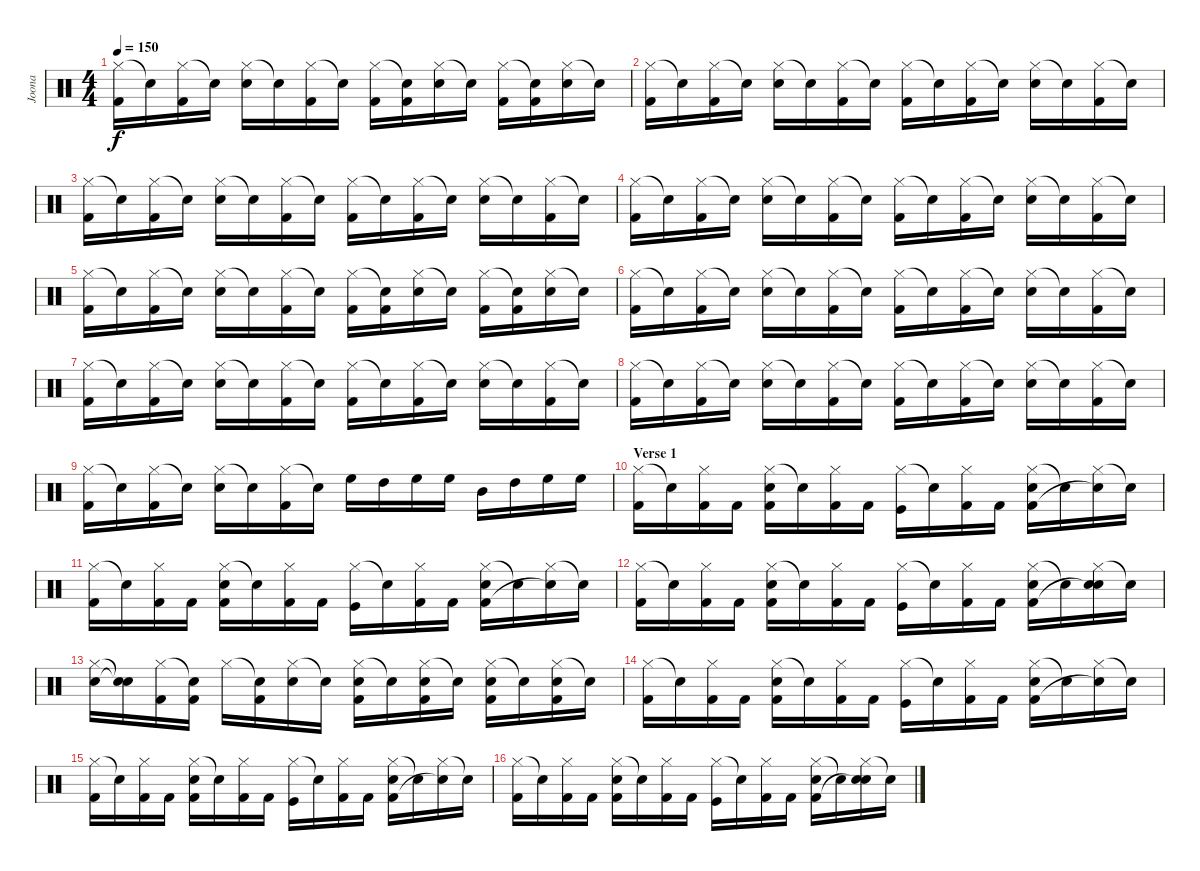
\track ("Joona" "Joona") {instrument percussion}
\staff {score}
\articulation defaults
\ts (4 4)
\tempo 150
\clef neutral
\ks c
("Hi-Hat (closed)" "Kick (hit) 2").16{dy f} "Snare (hit)"{t}.16 ("Hi-Hat (closed)" "Kick (hit) 2").16 "Snare (hit)"{t}.16 ("Hi-Hat (closed)" "Snare (hit) 2").16 "Snare (hit)"{t}.16 ("Hi-Hat (closed)" "Kick (hit) 2").16 "Snare (hit)"{t}.16 ("Hi-Hat (closed)" "Kick (hit) 2").16 ("Snare (hit)"{t} "Kick (hit) 2").16 ("Hi-Hat (closed)" "Snare (hit) 2").16 "Snare (hit)"{t}.16 ("Hi-Hat (closed)" "Kick (hit) 2").16 ("Snare (hit)"{t} "Kick (hit) 2").16 ("Hi-Hat (closed)" "Snare (hit) 2").16 "Snare (hit)"{t}.16 |
("Hi-Hat (closed)" "Kick (hit) 2").16 "Snare (hit)"{t}.16 ("Hi-Hat (closed)" "Kick (hit) 2").16 "Snare (hit)"{t}.16 ("Hi-Hat (closed)" "Snare (hit) 2").16 "Snare (hit)"{t}.16 ("Hi-Hat (closed)" "Kick (hit) 2").16 "Snare (hit)"{t}.16 ("Hi-Hat (closed)" "Kick (hit) 2").16 "Snare (hit)"{t}.16 ("Hi-Hat (closed)" "Kick (hit) 2").16 "Snare (hit)"{t}.16 ("Hi-Hat (closed)" "Snare (hit) 2").16 "Snare (hit)"{t}.16 ("Hi-Hat (closed)" "Kick (hit) 2").16 "Snare (hit)"{t}.16 |
("Hi-Hat (closed)" "Kick (hit) 2").16 "Snare (hit)"{t}.16 ("Hi-Hat (closed)" "Kick (hit) 2").16 "Snare (hit)"{t}.16 ("Hi-Hat (closed)" "Snare (hit) 2").16 "Snare (hit)"{t}.16 ("Hi-Hat (closed)" "Kick (hit) 2").16 "Snare (hit)"{t}.16 ("Hi-Hat (closed)" "Kick (hit) 2").16 "Snare (hit)"{t}.16 ("Hi-Hat (closed)" "Kick (hit) 2").16 "Snare (hit)"{t}.16 ("Hi-Hat (closed)" "Snare (hit) 2").16 "Snare (hit)"{t}.16 ("Hi-Hat (closed)" "Kick (hit) 2").16 "Snare (hit)"{t}.16 |
("Hi-Hat (closed)" "Kick (hit) 2").16 "Snare (hit)"{t}.16 ("Hi-Hat (closed)" "Kick (hit) 2").16 "Snare (hit)"{t}.16 ("Hi-Hat (closed)" "Snare (hit) 2").16 "Snare (hit)"{t}.16 ("Hi-Hat (closed)" "Kick (hit) 2").16 "Snare (hit)"{t}.16 ("Hi-Hat (closed)" "Kick (hit) 2").16 "Snare (hit)"{t}.16 ("Hi-Hat (closed)" "Kick (hit) 2").16 "Snare (hit)"{t}.16 ("Hi-Hat (closed)" "Snare (hit) 2").16 "Snare (hit)"{t}.16 ("Hi-Hat (closed)" "Kick (hit) 2").16 "Snare (hit)"{t}.16 |
("Hi-Hat (closed)" "Kick (hit) 2").16 "Snare (hit)"{t}.16 ("Hi-Hat (closed)" "Kick (hit) 2").16 "Snare (hit)"{t}.16 ("Hi-Hat (closed)" "Snare (hit) 2").16 "Snare (hit)"{t}.16 ("Hi-Hat (closed)" "Kick (hit) 2").16 "Snare (hit)"{t}.16 ("Hi-Hat (closed)" "Kick (hit) 2").16 ("Snare (hit)"{t} "Kick (hit) 2").16 ("Hi-Hat (closed)" "Snare (hit) 2").16 "Snare (hit)"{t}.16 ("Hi-Hat (closed)" "Kick (hit) 2").16 ("Snare (hit)"{t} "Kick (hit) 2").16 ("Hi-Hat (closed)" "Snare (hit) 2").16 "Snare (hit)"{t}.16 |
("Hi-Hat (closed)" "Kick (hit) 2").16 "Snare (hit)"{t}.16 ("Hi-Hat (closed)" "Kick (hit) 2").16 "Snare (hit)"{t}.16 ("Hi-Hat (closed)" "Snare (hit) 2").16 "Snare (hit)"{t}.16 ("Hi-Hat (closed)" "Kick (hit) 2").16 "Snare (hit)"{t}.16 ("Hi-Hat (closed)" "Kick (hit) 2").16 "Snare (hit)"{t}.16 ("Hi-Hat (closed)" "Kick (hit) 2").16 "Snare (hit)"{t}.16 ("Hi-Hat (closed)" "Snare (hit) 2").16 "Snare (hit)"{t}.16 ("Hi-Hat (closed)" "Kick (hit) 2").16 "Snare (hit)"{t}.16 |
("Hi-Hat (closed)" "Kick (hit) 2").16 "Snare (hit)"{t}.16 ("Hi-Hat (closed)" "Kick (hit) 2").16 "Snare (hit)"{t}.16 ("Hi-Hat (closed)" "Snare (hit) 2").16 "Snare (hit)"{t}.16 ("Hi-Hat (closed)" "Kick (hit) 2").16 "Snare (hit)"{t}.16 ("Hi-Hat (closed)" "Kick (hit) 2").16 "Snare (hit)"{t}.16 ("Hi-Hat (closed)" "Kick (hit) 2").16 "Snare (hit)"{t}.16 ("Hi-Hat (closed)" "Snare (hit) 2").16 "Snare (hit)"{t}.16 ("Hi-Hat (closed)" "Kick (hit) 2").16 "Snare (hit)"{t}.16 |
("Hi-Hat (closed)" "Kick (hit) 2").16 "Snare (hit)"{t}.16 ("Hi-Hat (closed)" "Kick (hit) 2").16 "Snare (hit)"{t}.16 ("Hi-Hat (closed)" "Snare (hit) 2").16 "Snare (hit)"{t}.16 ("Hi-Hat (closed)" "Kick (hit) 2").16 "Snare (hit)"{t}.16 ("Hi-Hat (closed)" "Kick (hit) 2").16 "Snare (hit)"{t}.16 ("Hi-Hat (closed)" "Kick (hit) 2").16 "Snare (hit)"{t}.16 ("Hi-Hat (closed)" "Snare (hit) 2").16 "Snare (hit)"{t}.16 ("Hi-Hat (closed)" "Kick (hit) 2").16 "Snare (hit)"{t}.16 |
("Hi-Hat (closed)" "Kick (hit) 2").16 "Snare (hit)"{t}.16 ("Hi-Hat (closed)" "Kick (hit) 2").16 "Snare (hit)"{t}.16 ("Hi-Hat (closed)" "Snare (hit) 2").16 "Snare (hit)"{t}.16 ("Hi-Hat (closed)" "Kick (hit) 2").16 "Snare (hit)"{t}.16 "High Floor Tom (hit)".16 "High Tom (hit)".16 "High Floor Tom (hit)".16 "High Floor Tom (hit)".16 "Mid Tom (hit)".16 "High Tom (hit)".16 "High Floor Tom (hit)".16 "High Floor Tom (hit)".16 |
\section ("" "Verse 1")
("Hi-Hat (closed)" "Kick (hit) 2").16 "Snare (hit)"{t}.16 ("Hi-Hat (closed)" "Kick (hit) 2").16 "Kick (hit) 2".16 ("Hi-Hat (closed)" "Kick (hit) 2" "Snare (hit) 2").16 "Snare (hit)"{t}.16 ("Hi-Hat (closed)" "Kick (hit) 2").16 "Kick (hit) 2".16 ("Hi-Hat (closed)" "Kick (hit)").16 "Snare (hit)"{t}.16 ("Hi-Hat (closed)" "Kick (hit) 2").16 "Kick (hit) 2".16 ("Hi-Hat (closed)" "Kick (hit) 2" "Snare (hit) 2").16 "Snare (hit)"{t}.16 ("Hi-Hat (closed)" "Snare (hit)"{t}).16 "Snare (hit)"{t}.16 |
("Hi-Hat (closed)" "Kick (hit) 2").16 "Snare (hit)"{t}.16 ("Hi-Hat (closed)" "Kick (hit) 2").16 "Kick (hit) 2".16 ("Hi-Hat (closed)" "Kick (hit) 2" "Snare (hit) 2").16 "Snare (hit)"{t}.16 ("Hi-Hat (closed)" "Kick (hit) 2").16 "Kick (hit) 2".16 ("Hi-Hat (closed)" "Kick (hit)").16 "Snare (hit)"{t}.16 ("Hi-Hat (closed)" "Kick (hit) 2").16 "Kick (hit) 2".16 ("Hi-Hat (closed)" "Kick (hit) 2" "Snare (hit) 2").16 "Snare (hit)"{t}.16 ("Hi-Hat (closed)" "Snare (hit)"{t}).16 "Snare (hit)"{t}.16 |
("Hi-Hat (closed)" "Kick (hit) 2").16 "Snare (hit)"{t}.16 ("Hi-Hat (closed)" "Kick (hit) 2").16 "Kick (hit) 2".16 ("Hi-Hat (closed)" "Kick (hit) 2" "Snare (hit) 2").16 "Snare (hit)"{t}.16 ("Hi-Hat (closed)" "Kick (hit) 2").16 "Kick (hit) 2".16 ("Hi-Hat (closed)" "Kick (hit)").16 "Snare (hit)"{t}.16 ("Hi-Hat (closed)" "Kick (hit) 2").16 "Kick (hit) 2".16 ("Hi-Hat (closed)" "Kick (hit) 2" "Snare (hit) 2").16 "Snare (hit)"{t}.16 ("Hi-Hat (closed)" "Snare (hit)"{t} "Snare (hit) 2").16 "Snare (hit)"{t}.16 |
("Hi-Hat (closed)" "Snare (hit) 2").16 ("Snare (hit)"{t} "Snare (hit)"{t}).16 ("Hi-Hat (closed)" "Kick (hit) 2").16 ("Snare (hit)"{t} "Kick (hit) 2").16 "Hi-Hat (closed)".16 ("Snare (hit)"{t} "Kick (hit) 2").16 ("Hi-Hat (closed)" "Snare (hit) 2").16 "Snare (hit)"{t}.16 ("Hi-Hat (closed)" "Kick (hit) 2" "Snare (hit) 2").16 "Snare (hit)"{t}.16 ("Hi-Hat (closed)" "Kick (hit) 2" "Snare (hit) 2").16 "Snare (hit)"{t}.16 ("Hi-Hat (closed)" "Kick (hit) 2" "Snare (hit) 2").16 "Snare (hit)"{t}.16 ("Hi-Hat (closed)" "Kick (hit) 2" "Snare (hit) 2").16 "Snare (hit)"{t}.16 |
("Hi-Hat (closed)" "Kick (hit) 2").16 "Snare (hit)"{t}.16 ("Hi-Hat (closed)" "Kick (hit) 2").16 "Kick (hit) 2".16 ("Hi-Hat (closed)" "Kick (hit) 2" "Snare (hit) 2").16 "Snare (hit)"{t}.16 ("Hi-Hat (closed)" "Kick (hit) 2").16 "Kick (hit) 2".16 ("Hi-Hat (closed)" "Kick (hit)").16 "Snare (hit)"{t}.16 ("Hi-Hat (closed)" "Kick (hit) 2").16 "Kick (hit) 2".16 ("Hi-Hat (closed)" "Kick (hit) 2" "Snare (hit) 2").16 "Snare (hit)"{t}.16 ("Hi-Hat (closed)" "Snare (hit)"{t}).16 "Snare (hit)"{t}.16 |
("Hi-Hat (closed)" "Kick (hit) 2").16 "Snare (hit)"{t}.16 ("Hi-Hat (closed)" "Kick (hit) 2").16 "Kick (hit) 2".16 ("Hi-Hat (closed)" "Kick (hit) 2" "Snare (hit) 2").16 "Snare (hit)"{t}.16 ("Hi-Hat (closed)" "Kick (hit) 2").16 "Kick (hit) 2".16 ("Hi-Hat (closed)" "Kick (hit)").16 "Snare (hit)"{t}.16 ("Hi-Hat (closed)" "Kick (hit) 2").16 "Kick (hit) 2".16 ("Hi-Hat (closed)" "Kick (hit) 2" "Snare (hit) 2").16 "Snare (hit)"{t}.16 ("Hi-Hat (closed)" "Snare (hit)"{t}).16 "Snare (hit)"{t}.16 |
("Hi-Hat (closed)" "Kick (hit) 2").16 "Snare (hit)"{t}.16 ("Hi-Hat (closed)" "Kick (hit) 2").16 "Kick (hit) 2".16 ("Hi-Hat (closed)" "Kick (hit) 2" "Snare (hit) 2").16 "Snare (hit)"{t}.16 ("Hi-Hat (closed)" "Kick (hit) 2").16 "Kick (hit) 2".16 ("Hi-Hat (closed)" "Kick (hit)").16 "Snare (hit)"{t}.16 ("Hi-Hat (closed)" "Kick (hit) 2").16 "Kick (hit) 2".16 ("Hi-Hat (closed)" "Kick (hit) 2" "Snare (hit) 2").16 "Snare (hit)"{t}.16 ("Hi-Hat (closed)" "Snare (hit)"{t} "Snare (hit) 2").16 "Snare (hit)"{t}.16
